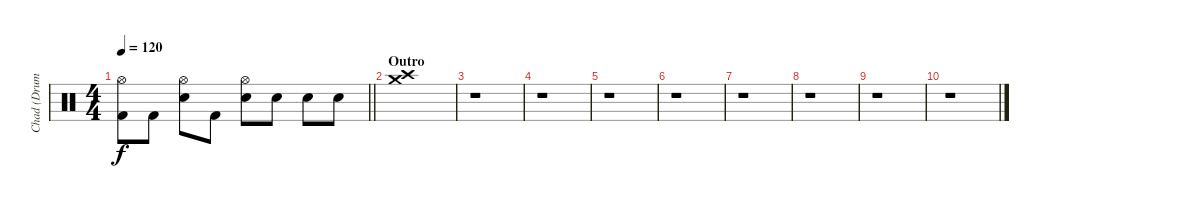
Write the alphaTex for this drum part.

\track ("Chad (Drums)" "Chad (Drum") {instrument percussion}
\staff {score}
\articulation defaults
\ts (4 4)
\tempo 120
\clef neutral
\barLineRight lightlight
\ks c
("Hi-Hat (open)" "Kick (hit) 2").8{dy f} "Kick (hit) 2".8 ("Hi-Hat (open)" "Electric Snare (hit)").8 "Kick (hit) 2".8 ("Hi-Hat (open)" "Electric Snare (hit)").8 "Electric Snare (hit)".8 "Electric Snare (hit)".8 "Electric Snare (hit)".8 |
\section ("" "Outro")
("Crash high (hit)" "Crash medium (hit)").1 |
r.1 |
r.1 |
r.1 |
r.1 |
r.1 |
r.1 |
r.1 |
r.1
